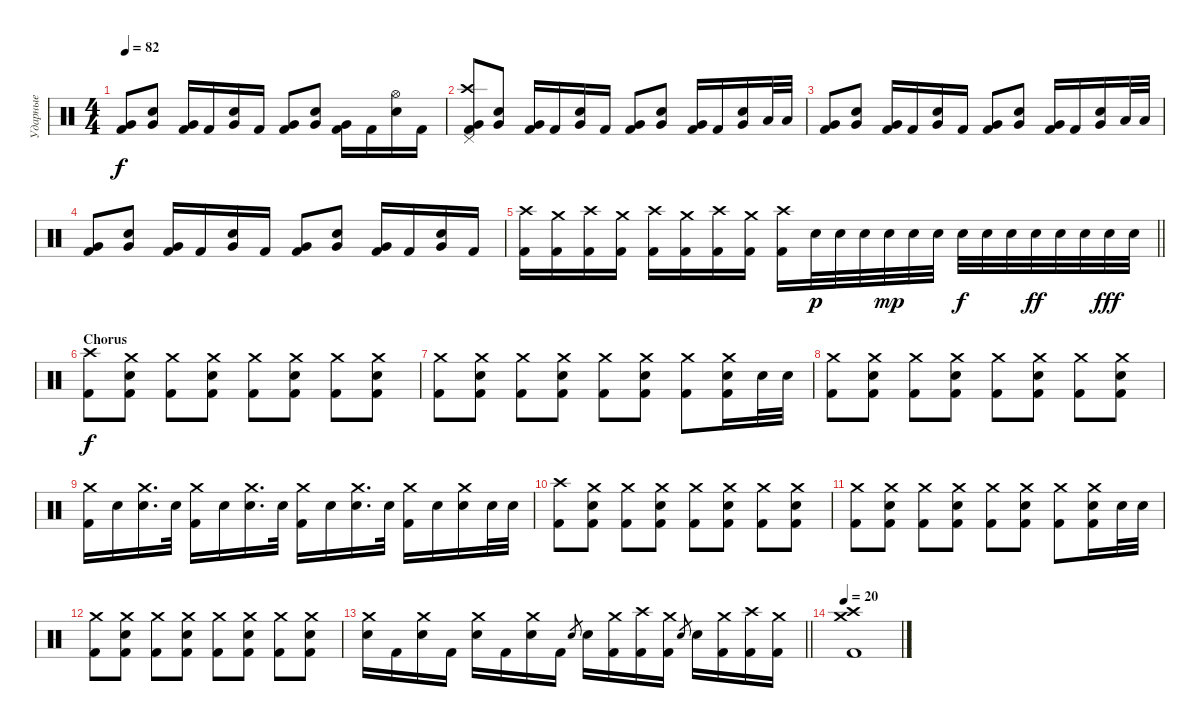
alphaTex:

\track ("Ударные" "Ударные") {instrument percussion}
\staff {score}
\articulation defaults
\ts (4 4)
\tempo 82
\clef neutral
\ks c
("Very Low Tom (hit)" "Kick (hit) 2").8{dy f} ("Electric Snare (hit)" "Very Low Tom (hit)").8 ("Very Low Tom (hit)" "Kick (hit) 2").16 "Kick (hit) 2".16 ("Electric Snare (hit)" "Very Low Tom (hit)").16 "Kick (hit) 2".16 ("Very Low Tom (hit)" "Kick (hit) 2").8 ("Electric Snare (hit)" "Very Low Tom (hit)").8 ("Very Low Tom (hit)" "Kick (hit) 2").16 "Kick (hit) 2".16 ("Hi-Hat (open)" "Electric Snare (hit)").16 "Kick (hit) 2".16 |
("Crash high (hit)" "Pedal Hi-Hat (hit)" "Very Low Tom (hit)" "Kick (hit) 2").8 ("Electric Snare (hit)" "Very Low Tom (hit)").8 ("Very Low Tom (hit)" "Kick (hit) 2").16 "Kick (hit) 2".16 ("Electric Snare (hit)" "Very Low Tom (hit)").16 "Kick (hit) 2".16 ("Very Low Tom (hit)" "Kick (hit) 2").8 ("Electric Snare (hit)" "Very Low Tom (hit)").8 ("Very Low Tom (hit)" "Kick (hit) 2").16 "Kick (hit) 2".16 ("Electric Snare (hit)" "Very Low Tom (hit)").16 "Low Tom (hit)".32 "Low Tom (hit)".32 |
("Very Low Tom (hit)" "Kick (hit) 2").8 ("Electric Snare (hit)" "Very Low Tom (hit)").8 ("Very Low Tom (hit)" "Kick (hit) 2").16 "Kick (hit) 2".16 ("Electric Snare (hit)" "Very Low Tom (hit)").16 "Kick (hit) 2".16 ("Very Low Tom (hit)" "Kick (hit) 2").8 ("Electric Snare (hit)" "Very Low Tom (hit)").8 ("Very Low Tom (hit)" "Kick (hit) 2").16 "Kick (hit) 2".16 ("Electric Snare (hit)" "Very Low Tom (hit)").16 "Low Tom (hit)".32 "Low Tom (hit)".32 |
("Very Low Tom (hit)" "Kick (hit) 2").8 ("Electric Snare (hit)" "Very Low Tom (hit)").8 ("Very Low Tom (hit)" "Kick (hit) 2").16 "Kick (hit) 2".16 ("Electric Snare (hit)" "Very Low Tom (hit)").16 "Kick (hit) 2".16 ("Very Low Tom (hit)" "Kick (hit) 2").8 ("Electric Snare (hit)" "Very Low Tom (hit)").8 ("Very Low Tom (hit)" "Kick (hit) 2").16 "Kick (hit) 2".16 ("Electric Snare (hit)" "Very Low Tom (hit)").16 "Kick (hit) 2".16 |
\barLineRight lightlight
("Crash high (hit)" "Kick (hit) 2").16 ("Crash medium (hit)" "Kick (hit) 2").16 ("Crash high (hit)" "Kick (hit) 2").16 ("Crash medium (hit)" "Kick (hit) 2").16 ("Crash high (hit)" "Kick (hit) 2").16 ("Crash medium (hit)" "Kick (hit) 2").16 ("Crash high (hit)" "Kick (hit) 2").16 ("Crash medium (hit)" "Kick (hit) 2").16 ("Crash high (hit)" "Kick (hit) 2").16 "Electric Snare (hit)".32{dy p} "Electric Snare (hit)".32 "Electric Snare (hit)".32 "Electric Snare (hit)".32{dy mp} "Electric Snare (hit)".32 "Electric Snare (hit)".32 "Electric Snare (hit)".32{dy f} "Electric Snare (hit)".32 "Electric Snare (hit)".32 "Electric Snare (hit)".32{dy ff} "Electric Snare (hit)".32 "Electric Snare (hit)".32 "Electric Snare (hit)".32{dy fff} "Electric Snare (hit)".32 |
\section ("" "Chorus")
("Crash high (hit)" "Kick (hit) 2").8{dy f} ("Crash medium (hit)" "Electric Snare (hit)" "Kick (hit) 2").8 ("Crash medium (hit)" "Kick (hit) 2").8 ("Crash medium (hit)" "Electric Snare (hit)" "Kick (hit) 2").8 ("Crash medium (hit)" "Kick (hit) 2").8 ("Crash medium (hit)" "Electric Snare (hit)" "Kick (hit) 2").8 ("Crash medium (hit)" "Kick (hit) 2").8 ("Crash medium (hit)" "Electric Snare (hit)" "Kick (hit) 2").8 |
("Crash medium (hit)" "Kick (hit) 2").8 ("Crash medium (hit)" "Electric Snare (hit)" "Kick (hit) 2").8 ("Crash medium (hit)" "Kick (hit) 2").8 ("Crash medium (hit)" "Electric Snare (hit)" "Kick (hit) 2").8 ("Crash medium (hit)" "Kick (hit) 2").8 ("Crash medium (hit)" "Electric Snare (hit)" "Kick (hit) 2").8 ("Crash medium (hit)" "Kick (hit) 2").8 ("Crash medium (hit)" "Electric Snare (hit)" "Kick (hit) 2").16 "Electric Snare (hit)".32 "Electric Snare (hit)".32 |
("Crash medium (hit)" "Kick (hit) 2").8 ("Crash medium (hit)" "Electric Snare (hit)" "Kick (hit) 2").8 ("Crash medium (hit)" "Kick (hit) 2").8 ("Crash medium (hit)" "Electric Snare (hit)" "Kick (hit) 2").8 ("Crash medium (hit)" "Kick (hit) 2").8 ("Crash medium (hit)" "Electric Snare (hit)" "Kick (hit) 2").8 ("Crash medium (hit)" "Kick (hit) 2").8 ("Crash medium (hit)" "Electric Snare (hit)" "Kick (hit) 2").8 |
("Crash medium (hit)" "Kick (hit) 2").16 "Electric Snare (hit)".16 ("Crash medium (hit)" "Electric Snare (hit)").16{d} "Electric Snare (hit)".32 ("Crash medium (hit)" "Kick (hit) 2").16 "Electric Snare (hit)".16 ("Crash medium (hit)" "Electric Snare (hit)").16{d} "Electric Snare (hit)".32 ("Crash medium (hit)" "Kick (hit) 2").16 "Electric Snare (hit)".16 ("Crash medium (hit)" "Electric Snare (hit)").16{d} "Electric Snare (hit)".32 ("Crash medium (hit)" "Kick (hit) 2").16 "Electric Snare (hit)".16 ("Crash medium (hit)" "Electric Snare (hit)").16 "Electric Snare (hit)".32 "Electric Snare (hit)".32 |
("Crash high (hit)" "Kick (hit) 2").8 ("Crash medium (hit)" "Electric Snare (hit)" "Kick (hit) 2").8 ("Crash medium (hit)" "Kick (hit) 2").8 ("Crash medium (hit)" "Electric Snare (hit)" "Kick (hit) 2").8 ("Crash medium (hit)" "Kick (hit) 2").8 ("Crash medium (hit)" "Electric Snare (hit)" "Kick (hit) 2").8 ("Crash medium (hit)" "Kick (hit) 2").8 ("Crash medium (hit)" "Electric Snare (hit)" "Kick (hit) 2").8 |
("Crash medium (hit)" "Kick (hit) 2").8 ("Crash medium (hit)" "Electric Snare (hit)" "Kick (hit) 2").8 ("Crash medium (hit)" "Kick (hit) 2").8 ("Crash medium (hit)" "Electric Snare (hit)" "Kick (hit) 2").8 ("Crash medium (hit)" "Kick (hit) 2").8 ("Crash medium (hit)" "Electric Snare (hit)" "Kick (hit) 2").8 ("Crash medium (hit)" "Kick (hit) 2").8 ("Crash medium (hit)" "Electric Snare (hit)" "Kick (hit) 2").16 "Electric Snare (hit)".32 "Electric Snare (hit)".32 |
("Crash medium (hit)" "Kick (hit) 2").8 ("Crash medium (hit)" "Electric Snare (hit)" "Kick (hit) 2").8 ("Crash medium (hit)" "Kick (hit) 2").8 ("Crash medium (hit)" "Electric Snare (hit)" "Kick (hit) 2").8 ("Crash medium (hit)" "Kick (hit) 2").8 ("Crash medium (hit)" "Electric Snare (hit)" "Kick (hit) 2").8 ("Crash medium (hit)" "Kick (hit) 2").8 ("Crash medium (hit)" "Electric Snare (hit)" "Kick (hit) 2").8 |
\barLineRight lightlight
("Crash medium (hit)" "Electric Snare (hit)").16 "Kick (hit) 2".16 ("Crash medium (hit)" "Electric Snare (hit)").16 "Kick (hit) 2".16 ("Crash medium (hit)" "Electric Snare (hit)").16 "Kick (hit) 2".16 ("Crash medium (hit)" "Electric Snare (hit)").16 "Kick (hit) 2".16 "Electric Snare (hit)".8{gr} "Electric Snare (hit)".16 ("Crash medium (hit)" "Kick (hit) 2").16 ("Crash high (hit)" "Kick (hit) 2").16 ("Crash medium (hit)" "Kick (hit) 2").16 "Electric Snare (hit)".8{gr} "Electric Snare (hit)".16 ("Crash medium (hit)" "Kick (hit) 2").16 ("Crash high (hit)" "Kick (hit) 2").16 ("Crash medium (hit)" "Kick (hit) 2").16 |
\tempo 20
("Crash high (hit)" "Crash medium (hit)" "Kick (hit) 2").1
